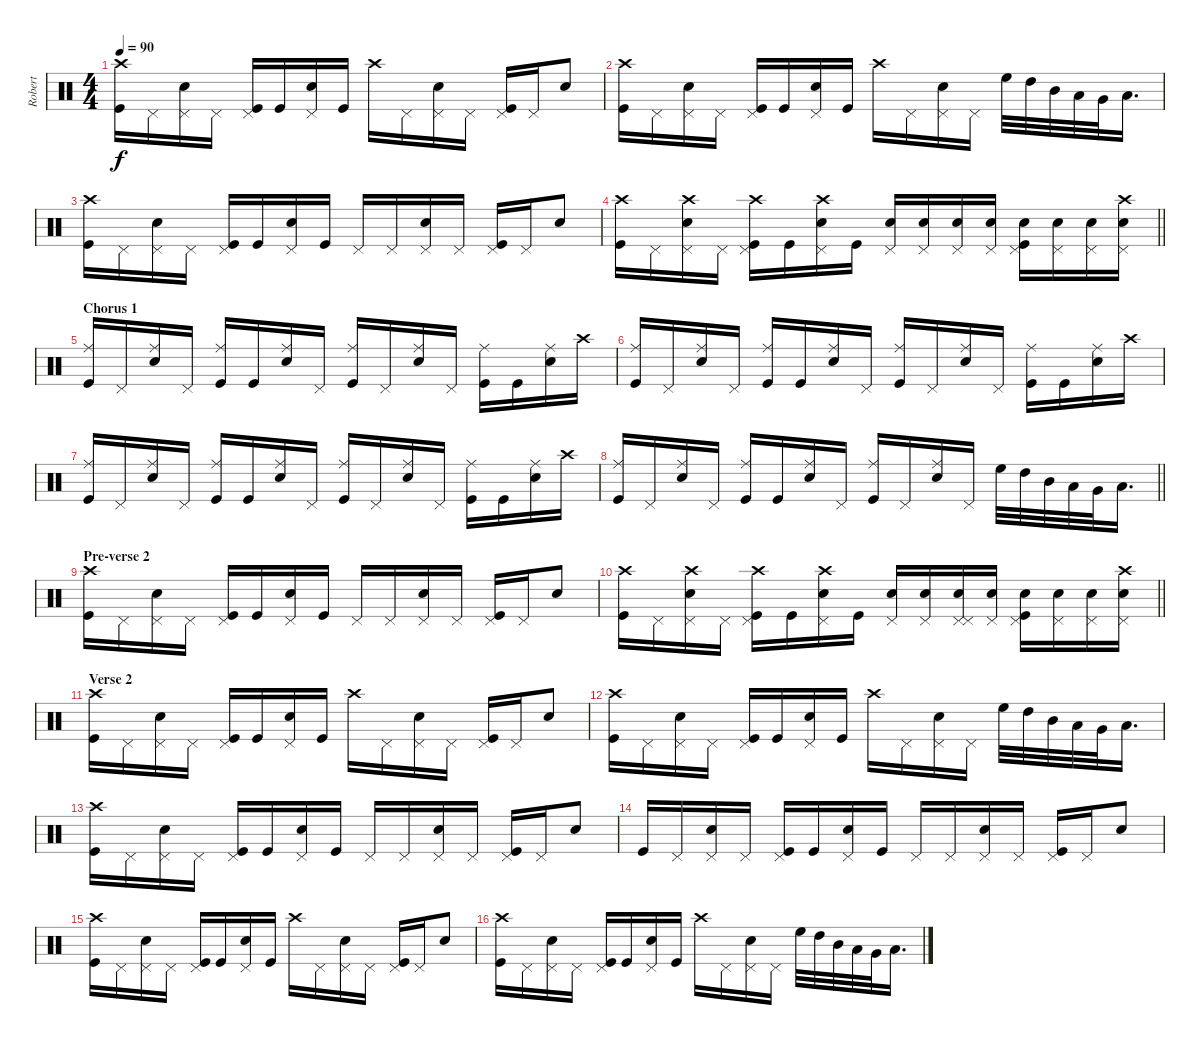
\track ("Robert" "Robert") {instrument percussion}
\staff {score}
\articulation defaults
\ts (4 4)
\tempo 90
\clef neutral
\ks c
("Crash high (hit)" "Kick (hit)").16{dy f} "Pedal Hi-Hat (hit)".16 ("Pedal Hi-Hat (hit)" "Snare (hit) 2").16 "Pedal Hi-Hat (hit)".16 ("Pedal Hi-Hat (hit)" "Kick (hit)").16 "Kick (hit)".16 ("Pedal Hi-Hat (hit)" "Snare (hit) 2").16 "Kick (hit)".16 "Crash high (hit)".16 "Pedal Hi-Hat (hit)".16 ("Pedal Hi-Hat (hit)" "Snare (hit) 2").16 "Pedal Hi-Hat (hit)".16 ("Pedal Hi-Hat (hit)" "Kick (hit)").16 "Pedal Hi-Hat (hit)".16 "Snare (hit) 2".8 |
("Crash high (hit)" "Kick (hit)").16 "Pedal Hi-Hat (hit)".16 ("Pedal Hi-Hat (hit)" "Snare (hit) 2").16 "Pedal Hi-Hat (hit)".16 ("Pedal Hi-Hat (hit)" "Kick (hit)").16 "Kick (hit)".16 ("Pedal Hi-Hat (hit)" "Snare (hit) 2").16 "Kick (hit)".16 "Crash high (hit)".16 "Pedal Hi-Hat (hit)".16 ("Pedal Hi-Hat (hit)" "Snare (hit) 2").16 "Pedal Hi-Hat (hit)".16 "High Floor Tom (hit)".32 "High Tom (hit)".32 "Mid Tom (hit)".32 "Low Tom (hit)".32 "Very Low Tom (hit)".32 "Low Floor Tom (hit)".16{d} |
("Crash high (hit)" "Kick (hit)").16 "Pedal Hi-Hat (hit)".16 ("Pedal Hi-Hat (hit)" "Snare (hit) 2").16 "Pedal Hi-Hat (hit)".16 ("Pedal Hi-Hat (hit)" "Kick (hit)").16 "Kick (hit)".16 ("Pedal Hi-Hat (hit)" "Snare (hit) 2").16 "Kick (hit)".16 "Pedal Hi-Hat (hit)".16 "Pedal Hi-Hat (hit)".16 ("Pedal Hi-Hat (hit)" "Snare (hit) 2").16 "Pedal Hi-Hat (hit)".16 ("Pedal Hi-Hat (hit)" "Kick (hit)").16 "Pedal Hi-Hat (hit)".16 "Snare (hit) 2".8 |
\barLineRight lightlight
("Crash high (hit)" "Kick (hit)").16 "Pedal Hi-Hat (hit)".16 ("Pedal Hi-Hat (hit)" "Crash high (hit)" "Snare (hit) 2").16 "Pedal Hi-Hat (hit)".16 ("Pedal Hi-Hat (hit)" "Kick (hit)" "Crash high (hit)").16 "Kick (hit)".16 ("Pedal Hi-Hat (hit)" "Crash high (hit)" "Snare (hit) 2").16 "Kick (hit)".16 ("Pedal Hi-Hat (hit)" "Snare (hit) 2").16 ("Snare (hit) 2" "Pedal Hi-Hat (hit)").16 ("Pedal Hi-Hat (hit)" "Snare (hit) 2").16 ("Snare (hit) 2" "Pedal Hi-Hat (hit)").16 ("Pedal Hi-Hat (hit)" "Snare (hit) 2" "Kick (hit)").16 ("Snare (hit) 2" "Pedal Hi-Hat (hit)").16 ("Pedal Hi-Hat (hit)" "Snare (hit) 2").16 ("Snare (hit) 2" "Crash high (hit)" "Pedal Hi-Hat (hit)").16 |
\section ("" "Chorus 1")
("Ride (middle)" "Kick (hit)").16 "Pedal Hi-Hat (hit)".16 ("Ride (middle)" "Snare (hit) 2").16 "Pedal Hi-Hat (hit)".16 ("Ride (middle)" "Kick (hit)").16 "Kick (hit)".16 ("Ride (middle)" "Snare (hit) 2").16 "Pedal Hi-Hat (hit)".16 ("Ride (middle)" "Kick (hit)").16 "Pedal Hi-Hat (hit)".16 ("Ride (middle)" "Snare (hit) 2").16 "Pedal Hi-Hat (hit)".16 ("Ride (middle)" "Kick (hit)").16 "Kick (hit)".16 ("Ride (middle)" "Snare (hit) 2").16 "Crash high (hit)".16 |
("Ride (middle)" "Kick (hit)").16 "Pedal Hi-Hat (hit)".16 ("Ride (middle)" "Snare (hit) 2").16 "Pedal Hi-Hat (hit)".16 ("Ride (middle)" "Kick (hit)").16 "Kick (hit)".16 ("Ride (middle)" "Snare (hit) 2").16 "Pedal Hi-Hat (hit)".16 ("Ride (middle)" "Kick (hit)").16 "Pedal Hi-Hat (hit)".16 ("Ride (middle)" "Snare (hit) 2").16 "Pedal Hi-Hat (hit)".16 ("Ride (middle)" "Kick (hit)").16 "Kick (hit)".16 ("Ride (middle)" "Snare (hit) 2").16 "Crash high (hit)".16 |
("Ride (middle)" "Kick (hit)").16 "Pedal Hi-Hat (hit)".16 ("Ride (middle)" "Snare (hit) 2").16 "Pedal Hi-Hat (hit)".16 ("Ride (middle)" "Kick (hit)").16 "Kick (hit)".16 ("Ride (middle)" "Snare (hit) 2").16 "Pedal Hi-Hat (hit)".16 ("Ride (middle)" "Kick (hit)").16 "Pedal Hi-Hat (hit)".16 ("Ride (middle)" "Snare (hit) 2").16 "Pedal Hi-Hat (hit)".16 ("Ride (middle)" "Kick (hit)").16 "Kick (hit)".16 ("Ride (middle)" "Snare (hit) 2").16 "Crash high (hit)".16 |
\barLineRight lightlight
("Ride (middle)" "Kick (hit)").16 "Pedal Hi-Hat (hit)".16 ("Ride (middle)" "Snare (hit) 2").16 "Pedal Hi-Hat (hit)".16 ("Ride (middle)" "Kick (hit)").16 "Kick (hit)".16 ("Ride (middle)" "Snare (hit) 2").16 "Pedal Hi-Hat (hit)".16 ("Ride (middle)" "Kick (hit)").16 "Pedal Hi-Hat (hit)".16 ("Ride (middle)" "Snare (hit) 2").16 "Pedal Hi-Hat (hit)".16 "High Floor Tom (hit)".32 "High Tom (hit)".32 "Mid Tom (hit)".32 "Low Tom (hit)".32 "Very Low Tom (hit)".32 "Low Floor Tom (hit)".16{d} |
\section ("" "Pre-verse 2")
("Crash high (hit)" "Kick (hit)").16 "Pedal Hi-Hat (hit)".16 ("Pedal Hi-Hat (hit)" "Snare (hit) 2").16 "Pedal Hi-Hat (hit)".16 ("Pedal Hi-Hat (hit)" "Kick (hit)").16 "Kick (hit)".16 ("Pedal Hi-Hat (hit)" "Snare (hit) 2").16 "Kick (hit)".16 "Pedal Hi-Hat (hit)".16 "Pedal Hi-Hat (hit)".16 ("Pedal Hi-Hat (hit)" "Snare (hit) 2").16 "Pedal Hi-Hat (hit)".16 ("Pedal Hi-Hat (hit)" "Kick (hit)").16 "Pedal Hi-Hat (hit)".16 "Snare (hit) 2".8 |
\barLineRight lightlight
("Crash high (hit)" "Kick (hit)").16 "Pedal Hi-Hat (hit)".16 ("Pedal Hi-Hat (hit)" "Crash high (hit)" "Snare (hit) 2").16 "Pedal Hi-Hat (hit)".16 ("Pedal Hi-Hat (hit)" "Kick (hit)" "Crash high (hit)").16 "Kick (hit)".16 ("Pedal Hi-Hat (hit)" "Crash high (hit)" "Snare (hit) 2").16 "Kick (hit)".16 ("Pedal Hi-Hat (hit)" "Snare (hit) 2").16 ("Snare (hit) 2" "Pedal Hi-Hat (hit)").16 ("Pedal Hi-Hat (hit)" "Pedal Hi-Hat (hit)" "Snare (hit) 2").16 ("Snare (hit) 2" "Pedal Hi-Hat (hit)").16 ("Pedal Hi-Hat (hit)" "Snare (hit) 2" "Kick (hit)").16 ("Snare (hit) 2" "Pedal Hi-Hat (hit)").16 ("Pedal Hi-Hat (hit)" "Snare (hit) 2").16 ("Snare (hit) 2" "Crash high (hit)" "Pedal Hi-Hat (hit)").16 |
\section ("" "Verse 2")
("Crash high (hit)" "Kick (hit)").16 "Pedal Hi-Hat (hit)".16 ("Pedal Hi-Hat (hit)" "Snare (hit) 2").16 "Pedal Hi-Hat (hit)".16 ("Pedal Hi-Hat (hit)" "Kick (hit)").16 "Kick (hit)".16 ("Pedal Hi-Hat (hit)" "Snare (hit) 2").16 "Kick (hit)".16 "Crash high (hit)".16 "Pedal Hi-Hat (hit)".16 ("Pedal Hi-Hat (hit)" "Snare (hit) 2").16 "Pedal Hi-Hat (hit)".16 ("Pedal Hi-Hat (hit)" "Kick (hit)").16 "Pedal Hi-Hat (hit)".16 "Snare (hit) 2".8 |
("Crash high (hit)" "Kick (hit)").16 "Pedal Hi-Hat (hit)".16 ("Pedal Hi-Hat (hit)" "Snare (hit) 2").16 "Pedal Hi-Hat (hit)".16 ("Pedal Hi-Hat (hit)" "Kick (hit)").16 "Kick (hit)".16 ("Pedal Hi-Hat (hit)" "Snare (hit) 2").16 "Kick (hit)".16 "Crash high (hit)".16 "Pedal Hi-Hat (hit)".16 ("Pedal Hi-Hat (hit)" "Snare (hit) 2").16 "Pedal Hi-Hat (hit)".16 "High Floor Tom (hit)".32 "High Tom (hit)".32 "Mid Tom (hit)".32 "Low Tom (hit)".32 "Very Low Tom (hit)".32 "Low Floor Tom (hit)".16{d} |
("Crash high (hit)" "Kick (hit)").16 "Pedal Hi-Hat (hit)".16 ("Pedal Hi-Hat (hit)" "Snare (hit) 2").16 "Pedal Hi-Hat (hit)".16 ("Pedal Hi-Hat (hit)" "Kick (hit)").16 "Kick (hit)".16 ("Pedal Hi-Hat (hit)" "Snare (hit) 2").16 "Kick (hit)".16 "Pedal Hi-Hat (hit)".16 "Pedal Hi-Hat (hit)".16 ("Pedal Hi-Hat (hit)" "Snare (hit) 2").16 "Pedal Hi-Hat (hit)".16 ("Pedal Hi-Hat (hit)" "Kick (hit)").16 "Pedal Hi-Hat (hit)".16 "Snare (hit) 2".8 |
"Kick (hit)".16 "Pedal Hi-Hat (hit)".16 ("Pedal Hi-Hat (hit)" "Snare (hit) 2").16 "Pedal Hi-Hat (hit)".16 ("Pedal Hi-Hat (hit)" "Kick (hit)").16 "Kick (hit)".16 ("Pedal Hi-Hat (hit)" "Snare (hit) 2").16 "Kick (hit)".16 "Pedal Hi-Hat (hit)".16 "Pedal Hi-Hat (hit)".16 ("Pedal Hi-Hat (hit)" "Snare (hit) 2").16 "Pedal Hi-Hat (hit)".16 ("Pedal Hi-Hat (hit)" "Kick (hit)").16 "Pedal Hi-Hat (hit)".16 "Snare (hit) 2".8 |
("Crash high (hit)" "Kick (hit)").16 "Pedal Hi-Hat (hit)".16 ("Pedal Hi-Hat (hit)" "Snare (hit) 2").16 "Pedal Hi-Hat (hit)".16 ("Pedal Hi-Hat (hit)" "Kick (hit)").16 "Kick (hit)".16 ("Pedal Hi-Hat (hit)" "Snare (hit) 2").16 "Kick (hit)".16 "Crash high (hit)".16 "Pedal Hi-Hat (hit)".16 ("Pedal Hi-Hat (hit)" "Snare (hit) 2").16 "Pedal Hi-Hat (hit)".16 ("Pedal Hi-Hat (hit)" "Kick (hit)").16 "Pedal Hi-Hat (hit)".16 "Snare (hit) 2".8 |
("Crash high (hit)" "Kick (hit)").16 "Pedal Hi-Hat (hit)".16 ("Pedal Hi-Hat (hit)" "Snare (hit) 2").16 "Pedal Hi-Hat (hit)".16 ("Pedal Hi-Hat (hit)" "Kick (hit)").16 "Kick (hit)".16 ("Pedal Hi-Hat (hit)" "Snare (hit) 2").16 "Kick (hit)".16 "Crash high (hit)".16 "Pedal Hi-Hat (hit)".16 ("Pedal Hi-Hat (hit)" "Snare (hit) 2").16 "Pedal Hi-Hat (hit)".16 "High Floor Tom (hit)".32 "High Tom (hit)".32 "Mid Tom (hit)".32 "Low Tom (hit)".32 "Very Low Tom (hit)".32 "Low Floor Tom (hit)".16{d}
